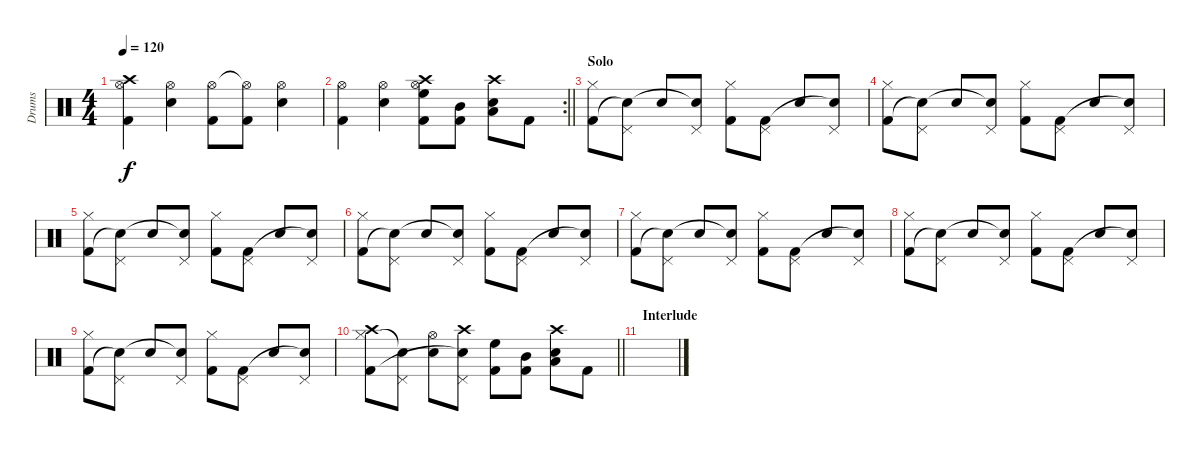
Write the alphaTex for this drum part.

\track ("Drums" "Drums") {instrument percussion}
\staff {score}
\articulation defaults
\ts (4 4)
\tempo 120
\clef neutral
\ks c
("Crash high (hit)" "Hi-Hat (open)" "Kick (hit) 2").4{dy f} ("Hi-Hat (open)" "Snare (hit) 2").4 ("Hi-Hat (open)" "Kick (hit) 2").8 ("Hi-Hat (open)"{t} "Kick (hit) 2").8 ("Hi-Hat (open)" "Snare (hit) 2").4 |
\rc 2
\barLineRight lightlight
("Hi-Hat (open)" "Kick (hit) 2").4 ("Hi-Hat (open)" "Snare (hit) 2").4 ("Crash high (hit)" "Hi-Hat (open)" "High Floor Tom (hit)" "Kick (hit) 2").8 ("Mid Tom (hit)" "Kick (hit) 2").8 ("Crash high (hit)" "Low Floor Tom (hit)" "Snare (hit) 2").8 "Kick (hit) 2".8 |
\section ("" "Solo")
("Hi-Hat (closed)" "Kick (hit) 2").8 ("Pedal Hi-Hat (hit)" "Snare (hit)"{t}).8 "Snare (hit) 2".8 ("Pedal Hi-Hat (hit)" "Snare (hit)"{t}).8 ("Hi-Hat (closed)" "Kick (hit) 2").8 ("Pedal Hi-Hat (hit)" "Kick (hit) 2").8 "Snare (hit) 2".8 ("Pedal Hi-Hat (hit)" "Snare (hit)"{t}).8 |
("Hi-Hat (closed)" "Kick (hit) 2").8 ("Pedal Hi-Hat (hit)" "Snare (hit)"{t}).8 "Snare (hit) 2".8 ("Pedal Hi-Hat (hit)" "Snare (hit)"{t}).8 ("Hi-Hat (closed)" "Kick (hit) 2").8 ("Pedal Hi-Hat (hit)" "Kick (hit) 2").8 "Snare (hit) 2".8 ("Pedal Hi-Hat (hit)" "Snare (hit)"{t}).8 |
("Hi-Hat (closed)" "Kick (hit) 2").8 ("Pedal Hi-Hat (hit)" "Snare (hit)"{t}).8 "Snare (hit) 2".8 ("Pedal Hi-Hat (hit)" "Snare (hit)"{t}).8 ("Hi-Hat (closed)" "Kick (hit) 2").8 ("Pedal Hi-Hat (hit)" "Kick (hit) 2").8 "Snare (hit) 2".8 ("Pedal Hi-Hat (hit)" "Snare (hit)"{t}).8 |
("Hi-Hat (closed)" "Kick (hit) 2").8 ("Pedal Hi-Hat (hit)" "Snare (hit)"{t}).8 "Snare (hit) 2".8 ("Pedal Hi-Hat (hit)" "Snare (hit)"{t}).8 ("Hi-Hat (closed)" "Kick (hit) 2").8 ("Pedal Hi-Hat (hit)" "Kick (hit) 2").8 "Snare (hit) 2".8 ("Pedal Hi-Hat (hit)" "Snare (hit)"{t}).8 |
("Hi-Hat (closed)" "Kick (hit) 2").8 ("Pedal Hi-Hat (hit)" "Snare (hit)"{t}).8 "Snare (hit) 2".8 ("Pedal Hi-Hat (hit)" "Snare (hit)"{t}).8 ("Hi-Hat (closed)" "Kick (hit) 2").8 ("Pedal Hi-Hat (hit)" "Kick (hit) 2").8 "Snare (hit) 2".8 ("Pedal Hi-Hat (hit)" "Snare (hit)"{t}).8 |
("Hi-Hat (closed)" "Kick (hit) 2").8 ("Pedal Hi-Hat (hit)" "Snare (hit)"{t}).8 "Snare (hit) 2".8 ("Pedal Hi-Hat (hit)" "Snare (hit)"{t}).8 ("Hi-Hat (closed)" "Kick (hit) 2").8 ("Pedal Hi-Hat (hit)" "Kick (hit) 2").8 "Snare (hit) 2".8 ("Pedal Hi-Hat (hit)" "Snare (hit)"{t}).8 |
("Hi-Hat (closed)" "Kick (hit) 2").8 ("Pedal Hi-Hat (hit)" "Snare (hit)"{t}).8 "Snare (hit) 2".8 ("Pedal Hi-Hat (hit)" "Snare (hit)"{t}).8 ("Hi-Hat (closed)" "Kick (hit) 2").8 ("Pedal Hi-Hat (hit)" "Kick (hit) 2").8 "Snare (hit) 2".8 ("Pedal Hi-Hat (hit)" "Snare (hit)"{t}).8 |
\barLineRight lightlight
("Crash high (hit)" "Hi-Hat (closed)" "Kick (hit) 2").8 ("Pedal Hi-Hat (hit)" "Snare (hit)"{t}).8 ("Hi-Hat (open)" "Snare (hit) 2").8 ("Crash high (hit)" "Pedal Hi-Hat (hit)" "Snare (hit)"{t}).8 ("High Floor Tom (hit)" "Kick (hit) 2").8 ("Mid Tom (hit)" "Kick (hit) 2").8 ("Crash high (hit)" "Low Floor Tom (hit)" "Snare (hit) 2").8 "Kick (hit) 2".8 |
\section ("" "Interlude")
